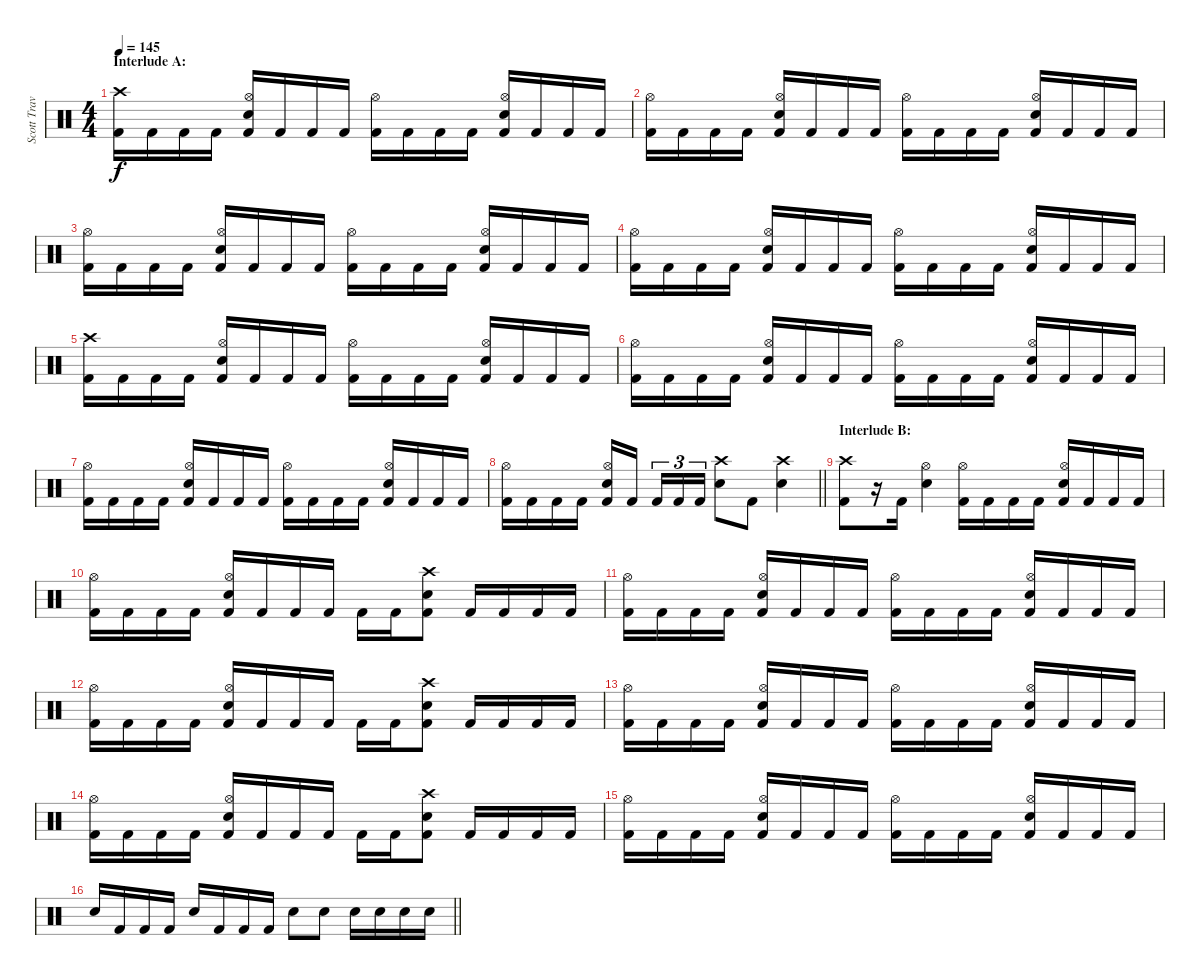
\track ("Scott Travis" "Scott Trav") {instrument percussion}
\staff {score}
\articulation defaults
\ts (4 4)
\section ("" "Interlude A:")
\tempo 145
\clef neutral
\ks c
("Crash high (hit)" "Kick (hit) 2").16{dy f} "Kick (hit) 2".16 "Kick (hit) 2".16 "Kick (hit) 2".16 ("Hi-Hat (open)" "Snare (hit) 2" "Kick (hit) 2").16 "Kick (hit) 2".16 "Kick (hit) 2".16 "Kick (hit) 2".16 ("Hi-Hat (open)" "Kick (hit) 2").16 "Kick (hit) 2".16 "Kick (hit) 2".16 "Kick (hit) 2".16 ("Hi-Hat (open)" "Snare (hit) 2" "Kick (hit) 2").16 "Kick (hit) 2".16 "Kick (hit) 2".16 "Kick (hit) 2".16 |
("Hi-Hat (open)" "Kick (hit) 2").16 "Kick (hit) 2".16 "Kick (hit) 2".16 "Kick (hit) 2".16 ("Hi-Hat (open)" "Snare (hit) 2" "Kick (hit) 2").16 "Kick (hit) 2".16 "Kick (hit) 2".16 "Kick (hit) 2".16 ("Hi-Hat (open)" "Kick (hit) 2").16 "Kick (hit) 2".16 "Kick (hit) 2".16 "Kick (hit) 2".16 ("Hi-Hat (open)" "Snare (hit) 2" "Kick (hit) 2").16 "Kick (hit) 2".16 "Kick (hit) 2".16 "Kick (hit) 2".16 |
("Hi-Hat (open)" "Kick (hit) 2").16 "Kick (hit) 2".16 "Kick (hit) 2".16 "Kick (hit) 2".16 ("Hi-Hat (open)" "Snare (hit) 2" "Kick (hit) 2").16 "Kick (hit) 2".16 "Kick (hit) 2".16 "Kick (hit) 2".16 ("Hi-Hat (open)" "Kick (hit) 2").16 "Kick (hit) 2".16 "Kick (hit) 2".16 "Kick (hit) 2".16 ("Hi-Hat (open)" "Snare (hit) 2" "Kick (hit) 2").16 "Kick (hit) 2".16 "Kick (hit) 2".16 "Kick (hit) 2".16 |
("Hi-Hat (open)" "Kick (hit) 2").16 "Kick (hit) 2".16 "Kick (hit) 2".16 "Kick (hit) 2".16 ("Hi-Hat (open)" "Snare (hit) 2" "Kick (hit) 2").16 "Kick (hit) 2".16 "Kick (hit) 2".16 "Kick (hit) 2".16 ("Hi-Hat (open)" "Kick (hit) 2").16 "Kick (hit) 2".16 "Kick (hit) 2".16 "Kick (hit) 2".16 ("Hi-Hat (open)" "Snare (hit) 2" "Kick (hit) 2").16 "Kick (hit) 2".16 "Kick (hit) 2".16 "Kick (hit) 2".16 |
("Crash high (hit)" "Kick (hit) 2").16 "Kick (hit) 2".16 "Kick (hit) 2".16 "Kick (hit) 2".16 ("Hi-Hat (open)" "Snare (hit) 2" "Kick (hit) 2").16 "Kick (hit) 2".16 "Kick (hit) 2".16 "Kick (hit) 2".16 ("Hi-Hat (open)" "Kick (hit) 2").16 "Kick (hit) 2".16 "Kick (hit) 2".16 "Kick (hit) 2".16 ("Hi-Hat (open)" "Snare (hit) 2" "Kick (hit) 2").16 "Kick (hit) 2".16 "Kick (hit) 2".16 "Kick (hit) 2".16 |
("Hi-Hat (open)" "Kick (hit) 2").16 "Kick (hit) 2".16 "Kick (hit) 2".16 "Kick (hit) 2".16 ("Hi-Hat (open)" "Snare (hit) 2" "Kick (hit) 2").16 "Kick (hit) 2".16 "Kick (hit) 2".16 "Kick (hit) 2".16 ("Hi-Hat (open)" "Kick (hit) 2").16 "Kick (hit) 2".16 "Kick (hit) 2".16 "Kick (hit) 2".16 ("Hi-Hat (open)" "Snare (hit) 2" "Kick (hit) 2").16 "Kick (hit) 2".16 "Kick (hit) 2".16 "Kick (hit) 2".16 |
("Hi-Hat (open)" "Kick (hit) 2").16 "Kick (hit) 2".16 "Kick (hit) 2".16 "Kick (hit) 2".16 ("Hi-Hat (open)" "Snare (hit) 2" "Kick (hit) 2").16 "Kick (hit) 2".16 "Kick (hit) 2".16 "Kick (hit) 2".16 ("Hi-Hat (open)" "Kick (hit) 2").16 "Kick (hit) 2".16 "Kick (hit) 2".16 "Kick (hit) 2".16 ("Hi-Hat (open)" "Snare (hit) 2" "Kick (hit) 2").16 "Kick (hit) 2".16 "Kick (hit) 2".16 "Kick (hit) 2".16 |
\barLineRight lightlight
("Hi-Hat (open)" "Kick (hit) 2").16 "Kick (hit) 2".16 "Kick (hit) 2".16 "Kick (hit) 2".16 ("Hi-Hat (open)" "Snare (hit) 2" "Kick (hit) 2").16 "Kick (hit) 2".16{beam splitsecondary} "Kick (hit) 2".16{tu (3 2)} "Kick (hit) 2".16{tu (3 2)} "Kick (hit) 2".16{tu (3 2)} ("Crash high (hit)" "Snare (hit) 2").8 "Kick (hit) 2".8 ("Crash high (hit)" "Snare (hit) 2").4 |
\section ("" "Interlude B:")
("Crash high (hit)" "Kick (hit) 2").8 r.16 "Kick (hit) 2".16 ("Hi-Hat (open)" "Snare (hit) 2").4 ("Hi-Hat (open)" "Kick (hit) 2").16 "Kick (hit) 2".16 "Kick (hit) 2".16 "Kick (hit) 2".16 ("Hi-Hat (open)" "Snare (hit) 2" "Kick (hit) 2").16 "Kick (hit) 2".16 "Kick (hit) 2".16 "Kick (hit) 2".16 |
("Hi-Hat (open)" "Kick (hit) 2").16 "Kick (hit) 2".16 "Kick (hit) 2".16 "Kick (hit) 2".16 ("Hi-Hat (open)" "Snare (hit) 2" "Kick (hit) 2").16 "Kick (hit) 2".16 "Kick (hit) 2".16 "Kick (hit) 2".16 "Kick (hit) 2".16 "Kick (hit) 2".16 ("Crash high (hit)" "Snare (hit) 2" "Kick (hit) 2").8 "Kick (hit) 2".16 "Kick (hit) 2".16 "Kick (hit) 2".16 "Kick (hit) 2".16 |
("Hi-Hat (open)" "Kick (hit) 2").16 "Kick (hit) 2".16 "Kick (hit) 2".16 "Kick (hit) 2".16 ("Hi-Hat (open)" "Snare (hit) 2" "Kick (hit) 2").16 "Kick (hit) 2".16 "Kick (hit) 2".16 "Kick (hit) 2".16 ("Hi-Hat (open)" "Kick (hit) 2").16 "Kick (hit) 2".16 "Kick (hit) 2".16 "Kick (hit) 2".16 ("Hi-Hat (open)" "Snare (hit) 2" "Kick (hit) 2").16 "Kick (hit) 2".16 "Kick (hit) 2".16 "Kick (hit) 2".16 |
("Hi-Hat (open)" "Kick (hit) 2").16 "Kick (hit) 2".16 "Kick (hit) 2".16 "Kick (hit) 2".16 ("Hi-Hat (open)" "Snare (hit) 2" "Kick (hit) 2").16 "Kick (hit) 2".16 "Kick (hit) 2".16 "Kick (hit) 2".16 "Kick (hit) 2".16 "Kick (hit) 2".16 ("Crash high (hit)" "Snare (hit) 2" "Kick (hit) 2").8 "Kick (hit) 2".16 "Kick (hit) 2".16 "Kick (hit) 2".16 "Kick (hit) 2".16 |
("Hi-Hat (open)" "Kick (hit) 2").16 "Kick (hit) 2".16 "Kick (hit) 2".16 "Kick (hit) 2".16 ("Hi-Hat (open)" "Snare (hit) 2" "Kick (hit) 2").16 "Kick (hit) 2".16 "Kick (hit) 2".16 "Kick (hit) 2".16 ("Hi-Hat (open)" "Kick (hit) 2").16 "Kick (hit) 2".16 "Kick (hit) 2".16 "Kick (hit) 2".16 ("Hi-Hat (open)" "Snare (hit) 2" "Kick (hit) 2").16 "Kick (hit) 2".16 "Kick (hit) 2".16 "Kick (hit) 2".16 |
("Hi-Hat (open)" "Kick (hit) 2").16 "Kick (hit) 2".16 "Kick (hit) 2".16 "Kick (hit) 2".16 ("Hi-Hat (open)" "Snare (hit) 2" "Kick (hit) 2").16 "Kick (hit) 2".16 "Kick (hit) 2".16 "Kick (hit) 2".16 "Kick (hit) 2".16 "Kick (hit) 2".16 ("Crash high (hit)" "Snare (hit) 2" "Kick (hit) 2").8 "Kick (hit) 2".16 "Kick (hit) 2".16 "Kick (hit) 2".16 "Kick (hit) 2".16 |
("Hi-Hat (open)" "Kick (hit) 2").16 "Kick (hit) 2".16 "Kick (hit) 2".16 "Kick (hit) 2".16 ("Hi-Hat (open)" "Snare (hit) 2" "Kick (hit) 2").16 "Kick (hit) 2".16 "Kick (hit) 2".16 "Kick (hit) 2".16 ("Hi-Hat (open)" "Kick (hit) 2").16 "Kick (hit) 2".16 "Kick (hit) 2".16 "Kick (hit) 2".16 ("Hi-Hat (open)" "Snare (hit) 2" "Kick (hit) 2").16 "Kick (hit) 2".16 "Kick (hit) 2".16 "Kick (hit) 2".16 |
\barLineRight lightlight "Snare (hit) 2".16 "Kick (hit) 2".16 "Kick (hit) 2".16 "Kick (hit) 2".16 "Snare (hit) 2".16 "Kick (hit) 2".16 "Kick (hit) 2".16 "Kick (hit) 2".16 "Snare (hit) 2".8 "Snare (hit) 2".8 "Snare (hit) 2".16 "Snare (hit) 2".16 "Snare (hit) 2".16 "Snare (hit) 2".16
